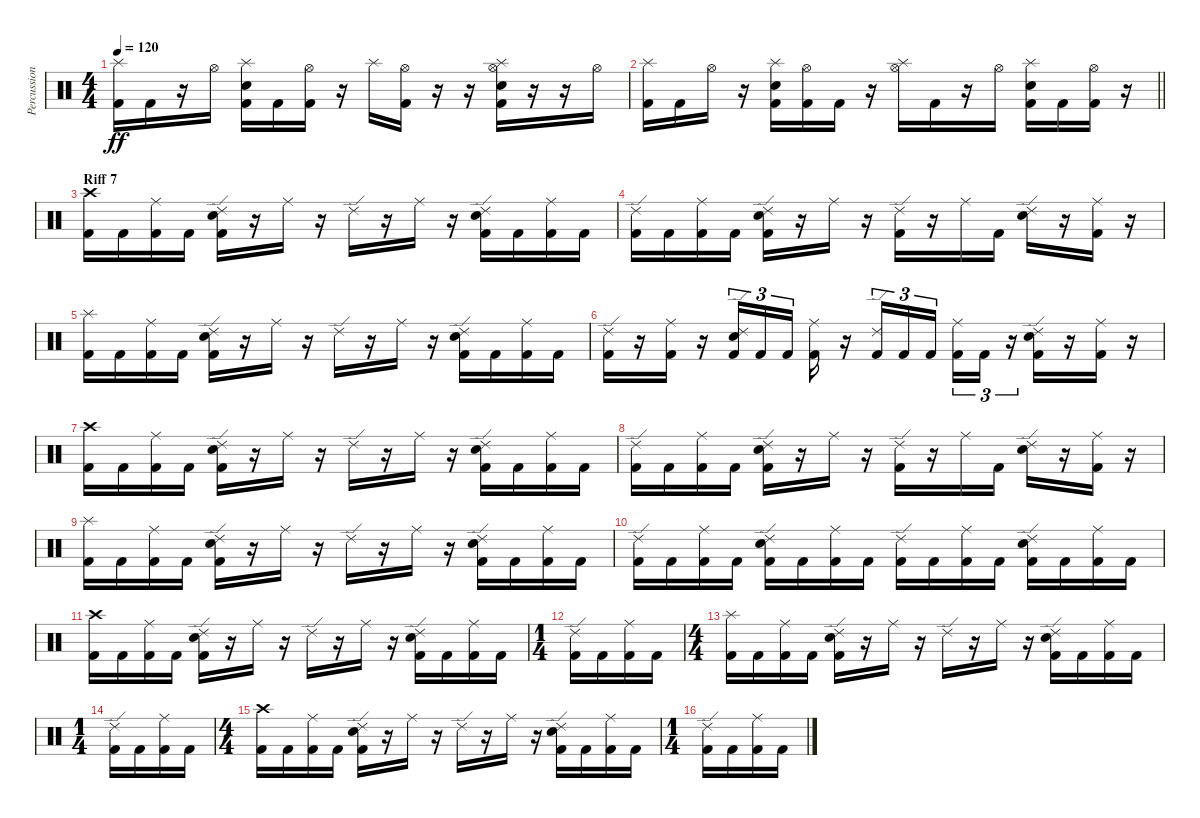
\track ("Percussion" "Percussion") {instrument percussion}
\staff {score}
\articulation defaults
\ts (4 4)
\tempo 120
\clef neutral
\ks c
("Splash (hit)" "Kick (hit) 2").16{dy ff} "Kick (hit) 2".16 r.16 "Hi-Hat (open)".16 ("Splash (hit)" "Electric Snare (hit)" "Kick (hit) 2").16 "Kick (hit) 2".16 ("Hi-Hat (open)" "Kick (hit) 2").16 r.16 "Splash (hit)".16 ("Hi-Hat (open)" "Kick (hit) 2").16 r.16 r.16 ("Splash (hit)" "Hi-Hat (open)" "Electric Snare (hit)" "Kick (hit) 2").16 r.16 r.16 "Hi-Hat (open)".16 |
\barLineRight lightlight
("Splash (hit)" "Kick (hit) 2").16 "Kick (hit) 2".16 "Hi-Hat (open)".16 r.16 ("Splash (hit)" "Electric Snare (hit)" "Kick (hit) 2").16 ("Hi-Hat (open)" "Kick (hit) 2").16 "Kick (hit) 2".16 r.16 ("Splash (hit)" "Hi-Hat (open)").16 "Kick (hit) 2".16 r.16 "Hi-Hat (open)".16 ("Splash (hit)" "Electric Snare (hit)" "Kick (hit) 2").16 "Kick (hit) 2".16 ("Hi-Hat (open)" "Kick (hit) 2").16 r.16 |
\section ("" "Riff 7")
("Crash high (hit)" "Kick (hit) 2").16 "Kick (hit) 2".16 ("Ride (middle)" "Kick (hit) 2").16 "Kick (hit) 2".16 ("Ride (edge) 2" "Electric Snare (hit)" "Kick (hit) 2").16 r.16 "Ride (middle)".16 r.16 "Ride (edge) 2".16 r.16 "Ride (middle)".16 r.16 ("Ride (edge) 2" "Electric Snare (hit)" "Kick (hit) 2").16 "Kick (hit) 2".16 ("Ride (middle)" "Kick (hit) 2").16 "Kick (hit) 2".16 |
("Ride (edge) 2" "Kick (hit) 2").16 "Kick (hit) 2".16 ("Ride (middle)" "Kick (hit) 2").16 "Kick (hit) 2".16 ("Ride (edge) 2" "Electric Snare (hit)" "Kick (hit) 2").16 r.16 "Ride (middle)".16 r.16 ("Ride (edge) 2" "Kick (hit) 2").16 r.16 "Ride (middle)".16 "Kick (hit) 2".16 ("Ride (edge) 2" "Electric Snare (hit)").16 r.16 ("Ride (middle)" "Kick (hit) 2").16 r.16 |
("Splash (hit)" "Kick (hit) 2").16 "Kick (hit) 2".16 ("Ride (middle)" "Kick (hit) 2").16 "Kick (hit) 2".16 ("Ride (edge) 2" "Electric Snare (hit)" "Kick (hit) 2").16 r.16 "Ride (middle)".16 r.16 "Ride (edge) 2".16 r.16 "Ride (middle)".16 r.16 ("Ride (edge) 2" "Electric Snare (hit)" "Kick (hit) 2").16 "Kick (hit) 2".16 ("Ride (middle)" "Kick (hit) 2").16 "Kick (hit) 2".16 |
("Ride (edge) 2" "Kick (hit) 2").16 r.16 ("Ride (middle)" "Kick (hit) 2").16 r.16 ("Ride (edge) 2" "Electric Snare (hit)" "Kick (hit) 2").16{tu (3 2)} "Kick (hit) 2".16{tu (3 2)} "Kick (hit) 2".16{tu (3 2) beam splitsecondary} ("Ride (middle)" "Kick (hit) 2").16 r.16 ("Ride (edge) 2" "Kick (hit) 2").16{tu (3 2)} "Kick (hit) 2".16{tu (3 2)} "Kick (hit) 2".16{tu (3 2) beam splitsecondary} ("Ride (middle)" "Kick (hit) 2").16{tu (3 2)} "Kick (hit) 2".16{tu (3 2)} r.16{tu (3 2)} ("Ride (edge) 2" "Electric Snare (hit)" "Kick (hit) 2").16 r.16 ("Ride (middle)" "Kick (hit) 2").16 r.16 |
("Crash high (hit)" "Kick (hit) 2").16 "Kick (hit) 2".16 ("Ride (middle)" "Kick (hit) 2").16 "Kick (hit) 2".16 ("Ride (edge) 2" "Electric Snare (hit)" "Kick (hit) 2").16 r.16 "Ride (middle)".16 r.16 "Ride (edge) 2".16 r.16 "Ride (middle)".16 r.16 ("Ride (edge) 2" "Electric Snare (hit)" "Kick (hit) 2").16 "Kick (hit) 2".16 ("Ride (middle)" "Kick (hit) 2").16 "Kick (hit) 2".16 |
("Ride (edge) 2" "Kick (hit) 2").16 "Kick (hit) 2".16 ("Ride (middle)" "Kick (hit) 2").16 "Kick (hit) 2".16 ("Ride (edge) 2" "Electric Snare (hit)" "Kick (hit) 2").16 r.16 "Ride (middle)".16 r.16 ("Ride (edge) 2" "Kick (hit) 2").16 r.16 "Ride (middle)".16 "Kick (hit) 2".16 ("Ride (edge) 2" "Electric Snare (hit)").16 r.16 ("Ride (middle)" "Kick (hit) 2").16 r.16 |
("Splash (hit)" "Kick (hit) 2").16 "Kick (hit) 2".16 ("Ride (middle)" "Kick (hit) 2").16 "Kick (hit) 2".16 ("Ride (edge) 2" "Electric Snare (hit)" "Kick (hit) 2").16 r.16 "Ride (middle)".16 r.16 "Ride (edge) 2".16 r.16 "Ride (middle)".16 r.16 ("Ride (edge) 2" "Electric Snare (hit)" "Kick (hit) 2").16 "Kick (hit) 2".16 ("Ride (middle)" "Kick (hit) 2").16 "Kick (hit) 2".16 |
("Ride (edge) 2" "Kick (hit) 2").16 "Kick (hit) 2".16 ("Ride (middle)" "Kick (hit) 2").16 "Kick (hit) 2".16 ("Ride (edge) 2" "Electric Snare (hit)" "Kick (hit) 2").16 "Kick (hit) 2".16 ("Ride (middle)" "Kick (hit) 2").16 "Kick (hit) 2".16 ("Ride (edge) 2" "Kick (hit) 2").16 "Kick (hit) 2".16 ("Ride (middle)" "Kick (hit) 2").16 "Kick (hit) 2".16 ("Ride (edge) 2" "Electric Snare (hit)" "Kick (hit) 2").16 "Kick (hit) 2".16 ("Ride (middle)" "Kick (hit) 2").16 "Kick (hit) 2".16 |
("Crash high (hit)" "Kick (hit) 2").16 "Kick (hit) 2".16 ("Ride (middle)" "Kick (hit) 2").16 "Kick (hit) 2".16 ("Ride (edge) 2" "Electric Snare (hit)" "Kick (hit) 2").16 r.16 "Ride (middle)".16 r.16 "Ride (edge) 2".16 r.16 "Ride (middle)".16 r.16 ("Ride (edge) 2" "Electric Snare (hit)" "Kick (hit) 2").16 "Kick (hit) 2".16 ("Ride (middle)" "Kick (hit) 2").16 "Kick (hit) 2".16 |
\ts (1 4)
("Ride (edge) 2" "Kick (hit) 2").16 "Kick (hit) 2".16 ("Ride (middle)" "Kick (hit) 2").16 "Kick (hit) 2".16 |
\ts (4 4)
("Splash (hit)" "Kick (hit) 2").16 "Kick (hit) 2".16 ("Ride (middle)" "Kick (hit) 2").16 "Kick (hit) 2".16 ("Ride (edge) 2" "Electric Snare (hit)" "Kick (hit) 2").16 r.16 "Ride (middle)".16 r.16 "Ride (edge) 2".16 r.16 "Ride (middle)".16 r.16 ("Ride (edge) 2" "Electric Snare (hit)" "Kick (hit) 2").16 "Kick (hit) 2".16 ("Ride (middle)" "Kick (hit) 2").16 "Kick (hit) 2".16 |
\ts (1 4)
("Ride (edge) 2" "Kick (hit) 2").16 "Kick (hit) 2".16 ("Ride (middle)" "Kick (hit) 2").16 "Kick (hit) 2".16 |
\ts (4 4)
("Crash high (hit)" "Kick (hit) 2").16 "Kick (hit) 2".16 ("Ride (middle)" "Kick (hit) 2").16 "Kick (hit) 2".16 ("Ride (edge) 2" "Electric Snare (hit)" "Kick (hit) 2").16 r.16 "Ride (middle)".16 r.16 "Ride (edge) 2".16 r.16 "Ride (middle)".16 r.16 ("Ride (edge) 2" "Electric Snare (hit)" "Kick (hit) 2").16 "Kick (hit) 2".16 ("Ride (middle)" "Kick (hit) 2").16 "Kick (hit) 2".16 |
\ts (1 4)
("Ride (edge) 2" "Kick (hit) 2").16 "Kick (hit) 2".16 ("Ride (middle)" "Kick (hit) 2").16 "Kick (hit) 2".16
